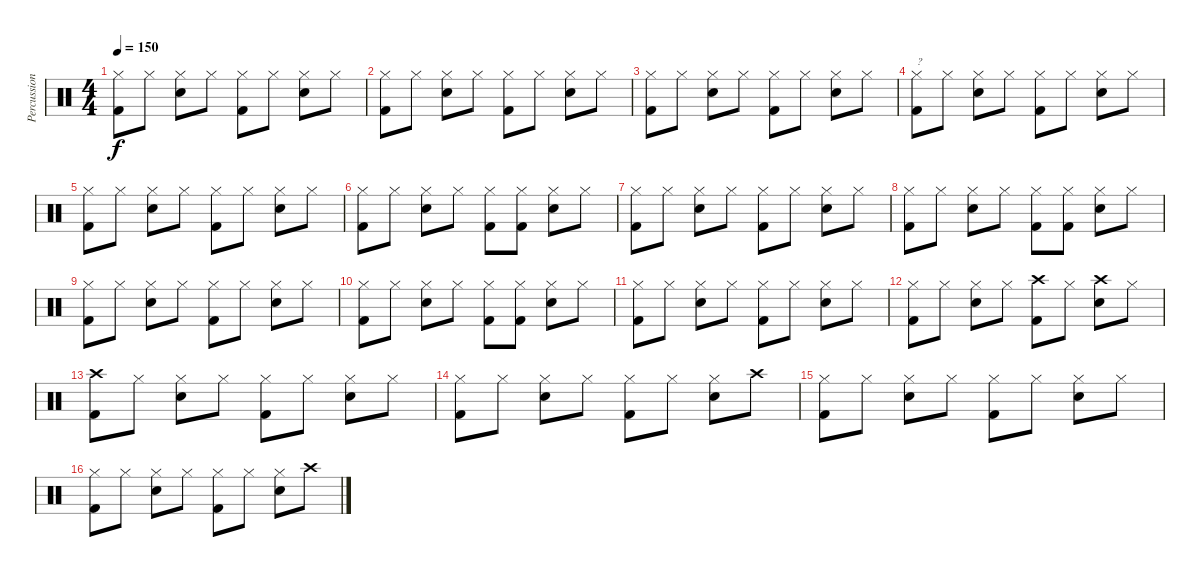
\track ("Percussion" "Percussion") {instrument percussion}
\staff {score}
\articulation defaults
\ts (4 4)
\tempo 150
\clef neutral
\ks c
("Kick (hit) 2" "Hi-Hat (closed)").8{dy f} "Hi-Hat (closed)".8 ("Snare (hit) 2" "Hi-Hat (closed)").8 "Hi-Hat (closed)".8 ("Kick (hit) 2" "Hi-Hat (closed)").8 "Hi-Hat (closed)".8 ("Snare (hit) 2" "Hi-Hat (closed)").8 "Hi-Hat (closed)".8 |
("Kick (hit) 2" "Hi-Hat (closed)").8 "Hi-Hat (closed)".8 ("Snare (hit) 2" "Hi-Hat (closed)").8 "Hi-Hat (closed)".8 ("Kick (hit) 2" "Hi-Hat (closed)").8 "Hi-Hat (closed)".8 ("Snare (hit) 2" "Hi-Hat (closed)").8 "Hi-Hat (closed)".8 |
("Kick (hit) 2" "Hi-Hat (closed)").8 "Hi-Hat (closed)".8 ("Snare (hit) 2" "Hi-Hat (closed)").8 "Hi-Hat (closed)".8 ("Kick (hit) 2" "Hi-Hat (closed)").8 "Hi-Hat (closed)".8 ("Snare (hit) 2" "Hi-Hat (closed)").8 "Hi-Hat (closed)".8 |
("Kick (hit) 2" "Hi-Hat (closed)").8{txt "?"} "Hi-Hat (closed)".8 ("Snare (hit) 2" "Hi-Hat (closed)").8 "Hi-Hat (closed)".8 ("Kick (hit) 2" "Hi-Hat (closed)").8 "Hi-Hat (closed)".8 ("Snare (hit) 2" "Hi-Hat (closed)").8 "Hi-Hat (closed)".8 |
("Kick (hit) 2" "Hi-Hat (closed)").8 "Hi-Hat (closed)".8 ("Snare (hit) 2" "Hi-Hat (closed)").8 "Hi-Hat (closed)".8 ("Kick (hit) 2" "Hi-Hat (closed)").8 "Hi-Hat (closed)".8 ("Snare (hit) 2" "Hi-Hat (closed)").8 "Hi-Hat (closed)".8 |
("Kick (hit) 2" "Hi-Hat (closed)").8 "Hi-Hat (closed)".8 ("Snare (hit) 2" "Hi-Hat (closed)").8 "Hi-Hat (closed)".8 ("Kick (hit) 2" "Hi-Hat (closed)").8 ("Kick (hit) 2" "Hi-Hat (closed)").8 ("Snare (hit) 2" "Hi-Hat (closed)").8 "Hi-Hat (closed)".8 |
("Kick (hit) 2" "Hi-Hat (closed)").8 "Hi-Hat (closed)".8 ("Snare (hit) 2" "Hi-Hat (closed)").8 "Hi-Hat (closed)".8 ("Kick (hit) 2" "Hi-Hat (closed)").8 "Hi-Hat (closed)".8 ("Snare (hit) 2" "Hi-Hat (closed)").8 "Hi-Hat (closed)".8 |
("Kick (hit) 2" "Hi-Hat (closed)").8 "Hi-Hat (closed)".8 ("Snare (hit) 2" "Hi-Hat (closed)").8 "Hi-Hat (closed)".8 ("Kick (hit) 2" "Hi-Hat (closed)").8 ("Kick (hit) 2" "Hi-Hat (closed)").8 ("Snare (hit) 2" "Hi-Hat (closed)").8 "Hi-Hat (closed)".8 |
("Kick (hit) 2" "Hi-Hat (closed)").8 "Hi-Hat (closed)".8 ("Snare (hit) 2" "Hi-Hat (closed)").8 "Hi-Hat (closed)".8 ("Kick (hit) 2" "Hi-Hat (closed)").8 "Hi-Hat (closed)".8 ("Snare (hit) 2" "Hi-Hat (closed)").8 "Hi-Hat (closed)".8 |
("Kick (hit) 2" "Hi-Hat (closed)").8 "Hi-Hat (closed)".8 ("Snare (hit) 2" "Hi-Hat (closed)").8 "Hi-Hat (closed)".8 ("Kick (hit) 2" "Hi-Hat (closed)").8 ("Kick (hit) 2" "Hi-Hat (closed)").8 ("Snare (hit) 2" "Hi-Hat (closed)").8 "Hi-Hat (closed)".8 |
("Kick (hit) 2" "Hi-Hat (closed)").8 "Hi-Hat (closed)".8 ("Snare (hit) 2" "Hi-Hat (closed)").8 "Hi-Hat (closed)".8 ("Kick (hit) 2" "Hi-Hat (closed)").8 "Hi-Hat (closed)".8 ("Snare (hit) 2" "Hi-Hat (closed)").8 "Hi-Hat (closed)".8 |
("Kick (hit) 2" "Hi-Hat (closed)").8 "Hi-Hat (closed)".8 ("Snare (hit) 2" "Hi-Hat (closed)").8 "Hi-Hat (closed)".8 ("Kick (hit) 2" "Crash high (hit)").8 "Hi-Hat (closed)".8 ("Snare (hit) 2" "Crash high (hit)").8 "Hi-Hat (closed)".8 |
("Kick (hit) 2" "Crash high (hit)").8 "Hi-Hat (closed)".8 ("Snare (hit) 2" "Hi-Hat (closed)").8 "Hi-Hat (closed)".8 ("Kick (hit) 2" "Hi-Hat (closed)").8 "Hi-Hat (closed)".8 ("Snare (hit) 2" "Hi-Hat (closed)").8 "Hi-Hat (closed)".8 |
("Kick (hit) 2" "Hi-Hat (closed)").8 "Hi-Hat (closed)".8 ("Snare (hit) 2" "Hi-Hat (closed)").8 "Hi-Hat (closed)".8 ("Kick (hit) 2" "Hi-Hat (closed)").8 "Hi-Hat (closed)".8 ("Snare (hit) 2" "Hi-Hat (closed)").8 "Crash high (hit)".8 |
("Kick (hit) 2" "Hi-Hat (closed)").8 "Hi-Hat (closed)".8 ("Snare (hit) 2" "Hi-Hat (closed)").8 "Hi-Hat (closed)".8 ("Kick (hit) 2" "Hi-Hat (closed)").8 "Hi-Hat (closed)".8 ("Snare (hit) 2" "Hi-Hat (closed)").8 "Hi-Hat (closed)".8 |
("Kick (hit) 2" "Hi-Hat (closed)").8 "Hi-Hat (closed)".8 ("Snare (hit) 2" "Hi-Hat (closed)").8 "Hi-Hat (closed)".8 ("Kick (hit) 2" "Hi-Hat (closed)").8 "Hi-Hat (closed)".8 ("Snare (hit) 2" "Hi-Hat (closed)").8 "Crash high (hit)".8
